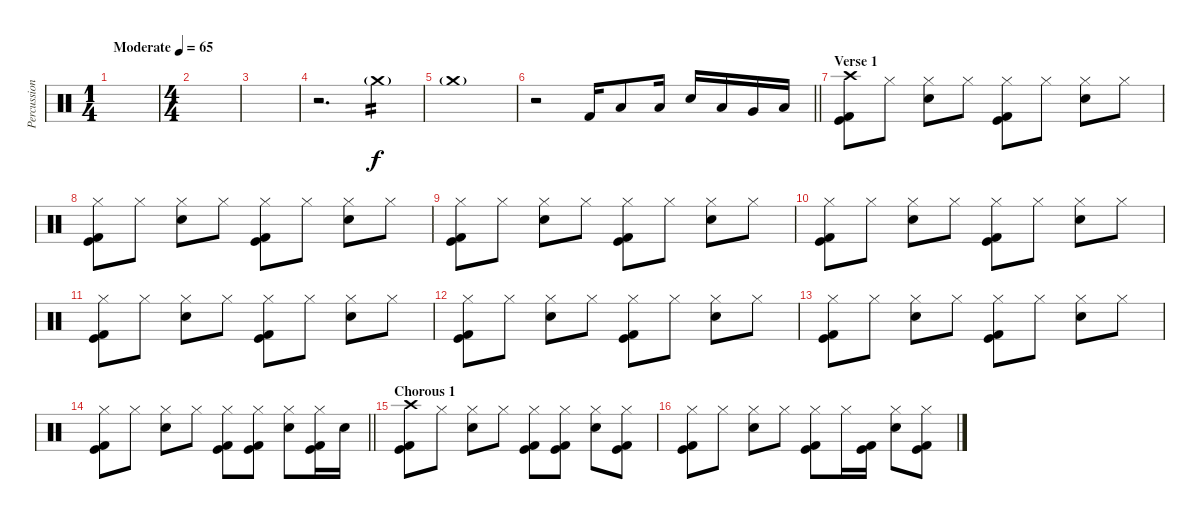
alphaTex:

\track ("Percussion" "Percussion") {instrument percussion}
\staff {score}
\articulation defaults
\ts (1 4)
\tempo (65 "Moderate")
\clef neutral
\ks c
|
\ts (4 4)
|
|
r.2{d} "Crash medium (hit)"{g}.4{tp 2} |
"Crash medium (hit)"{g}.1 |
\barLineRight lightlight
r.2 "Kick (hit) 2".16{dy f} "Low Tom (hit)".8 "Low Tom (hit)".16 "Electric Snare (hit)".16 "Low Tom (hit)".16 "Very Low Tom (hit)".16 "Low Floor Tom (hit)".16 |
\section ("" "Verse 1")
("Crash high (hit)" "Kick (hit)" "Kick (hit) 2").8 "Hi-Hat (closed)".8 ("Hi-Hat (closed)" "Electric Snare (hit)").8 "Hi-Hat (closed)".8 ("Hi-Hat (closed)" "Kick (hit)" "Kick (hit) 2").8 "Hi-Hat (closed)".8 ("Hi-Hat (closed)" "Electric Snare (hit)").8 "Hi-Hat (closed)".8 |
("Hi-Hat (closed)" "Kick (hit)" "Kick (hit) 2").8 "Hi-Hat (closed)".8 ("Hi-Hat (closed)" "Electric Snare (hit)").8 "Hi-Hat (closed)".8 ("Hi-Hat (closed)" "Kick (hit)" "Kick (hit) 2").8 "Hi-Hat (closed)".8 ("Hi-Hat (closed)" "Electric Snare (hit)").8 "Hi-Hat (closed)".8 |
("Hi-Hat (closed)" "Kick (hit)" "Kick (hit) 2").8 "Hi-Hat (closed)".8 ("Hi-Hat (closed)" "Electric Snare (hit)").8 "Hi-Hat (closed)".8 ("Hi-Hat (closed)" "Kick (hit)" "Kick (hit) 2").8 "Hi-Hat (closed)".8 ("Hi-Hat (closed)" "Electric Snare (hit)").8 "Hi-Hat (closed)".8 |
("Hi-Hat (closed)" "Kick (hit)" "Kick (hit) 2").8 "Hi-Hat (closed)".8 ("Hi-Hat (closed)" "Electric Snare (hit)").8 "Hi-Hat (closed)".8 ("Hi-Hat (closed)" "Kick (hit)" "Kick (hit) 2").8 "Hi-Hat (closed)".8 ("Hi-Hat (closed)" "Electric Snare (hit)").8 "Hi-Hat (closed)".8 |
("Hi-Hat (closed)" "Kick (hit)" "Kick (hit) 2").8 "Hi-Hat (closed)".8 ("Hi-Hat (closed)" "Electric Snare (hit)").8 "Hi-Hat (closed)".8 ("Hi-Hat (closed)" "Kick (hit)" "Kick (hit) 2").8 "Hi-Hat (closed)".8 ("Hi-Hat (closed)" "Electric Snare (hit)").8 "Hi-Hat (closed)".8 |
("Hi-Hat (closed)" "Kick (hit)" "Kick (hit) 2").8 "Hi-Hat (closed)".8 ("Hi-Hat (closed)" "Electric Snare (hit)").8 "Hi-Hat (closed)".8 ("Hi-Hat (closed)" "Kick (hit)" "Kick (hit) 2").8 "Hi-Hat (closed)".8 ("Hi-Hat (closed)" "Electric Snare (hit)").8 "Hi-Hat (closed)".8 |
("Hi-Hat (closed)" "Kick (hit)" "Kick (hit) 2").8 "Hi-Hat (closed)".8 ("Hi-Hat (closed)" "Electric Snare (hit)").8 "Hi-Hat (closed)".8 ("Hi-Hat (closed)" "Kick (hit)" "Kick (hit) 2").8 "Hi-Hat (closed)".8 ("Hi-Hat (closed)" "Electric Snare (hit)").8 "Hi-Hat (closed)".8 |
\barLineRight lightlight
("Hi-Hat (closed)" "Kick (hit)" "Kick (hit) 2").8 "Hi-Hat (closed)".8 ("Hi-Hat (closed)" "Electric Snare (hit)").8 "Hi-Hat (closed)".8 ("Hi-Hat (closed)" "Kick (hit)" "Kick (hit) 2").8 ("Hi-Hat (closed)" "Kick (hit)" "Kick (hit) 2").8 ("Hi-Hat (closed)" "Electric Snare (hit)").8 ("Hi-Hat (closed)" "Kick (hit)" "Kick (hit) 2").16 "Electric Snare (hit)".16 |
\section ("" "Chorous 1")
("Crash high (hit)" "Kick (hit)" "Kick (hit) 2").8 "Hi-Hat (closed)".8 ("Hi-Hat (closed)" "Electric Snare (hit)").8 "Hi-Hat (closed)".8 ("Hi-Hat (closed)" "Kick (hit)" "Kick (hit) 2").8 ("Hi-Hat (closed)" "Kick (hit)" "Kick (hit) 2").8 ("Hi-Hat (closed)" "Electric Snare (hit)").8 ("Hi-Hat (closed)" "Kick (hit)" "Kick (hit) 2").8 |
("Hi-Hat (closed)" "Kick (hit)" "Kick (hit) 2").8 "Hi-Hat (closed)".8 ("Hi-Hat (closed)" "Electric Snare (hit)").8 "Hi-Hat (closed)".8 ("Hi-Hat (closed)" "Kick (hit)" "Kick (hit) 2").8 "Hi-Hat (closed)".16 ("Kick (hit)" "Kick (hit) 2").16 ("Hi-Hat (closed)" "Electric Snare (hit)").8 ("Hi-Hat (closed)" "Kick (hit)" "Kick (hit) 2").8
